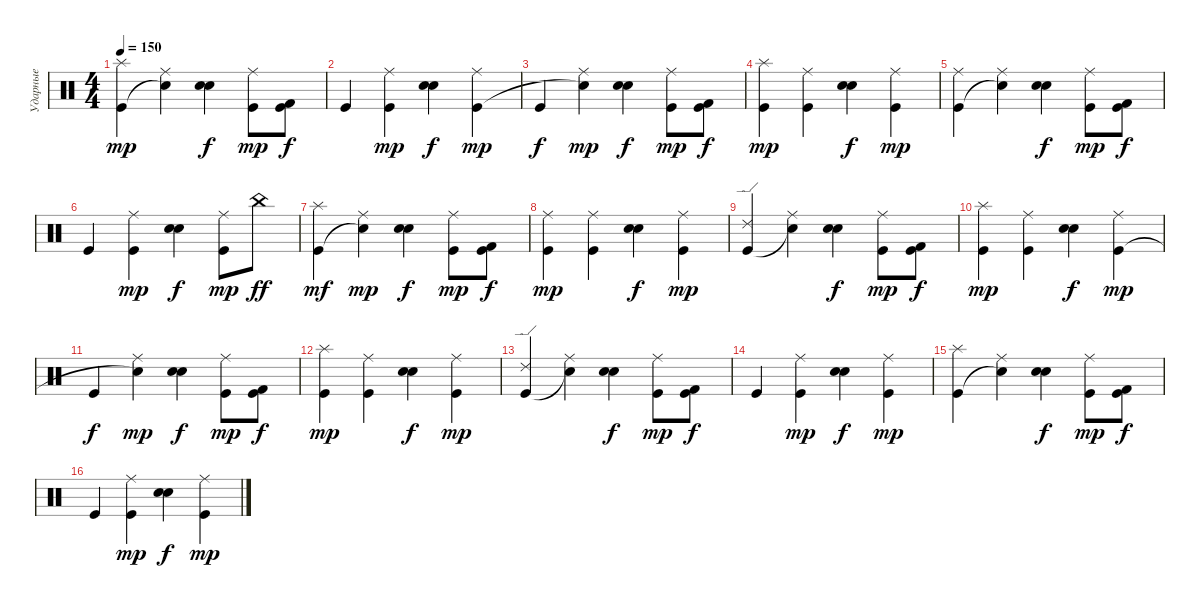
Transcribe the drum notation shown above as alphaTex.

\track ("Ударные" "Ударные") {instrument percussion}
\staff {score}
\articulation defaults
\ts (4 4)
\tempo 150
\clef neutral
\ks c
("Splash (hit)" "Kick (hit)").4{dy mp} ("Ride (middle)" "Snare (hit)"{t}).4 ("Electric Snare (hit)" "Snare (hit) 2").4{dy f} ("Ride (middle)" "Kick (hit)").8{dy mp} ("Kick (hit)" "Kick (hit) 2").8{dy f} |
"Kick (hit)".4 ("Ride (middle)" "Kick (hit)").4{dy mp} ("Electric Snare (hit)" "Snare (hit) 2").4{dy f} ("Ride (middle)" "Kick (hit)").4{dy mp} |
"Kick (hit)".4{dy f} ("Ride (middle)" "Snare (hit)"{t}).4{dy mp} ("Electric Snare (hit)" "Snare (hit) 2").4{dy f} ("Ride (middle)" "Kick (hit)").8{dy mp} ("Kick (hit)" "Kick (hit) 2").8{dy f} |
("Splash (hit)" "Kick (hit)").4{dy mp} ("Ride (middle)" "Kick (hit)").4 ("Electric Snare (hit)" "Snare (hit) 2").4{dy f} ("Ride (middle)" "Kick (hit)").4{dy mp} |
("Ride (middle)" "Kick (hit)").4 ("Ride (middle)" "Snare (hit)"{t}).4 ("Electric Snare (hit)" "Snare (hit) 2").4{dy f} ("Ride (middle)" "Kick (hit)").8{dy mp} ("Kick (hit)" "Kick (hit) 2").8{dy f} |
"Kick (hit)".4 ("Ride (middle)" "Kick (hit)").4{dy mp} ("Electric Snare (hit)" "Snare (hit) 2").4{dy f} ("Ride (middle)" "Kick (hit)").8{dy mp} "China (hit)".8{dy ff} |
("Splash (hit)" "Kick (hit)").4{dy mf} ("Ride (middle)" "Snare (hit)"{t}).4{dy mp} ("Electric Snare (hit)" "Snare (hit) 2").4{dy f} ("Ride (middle)" "Kick (hit)").8{dy mp} ("Kick (hit)" "Kick (hit) 2").8{dy f} |
("Ride (middle)" "Kick (hit)").4{dy mp} ("Ride (middle)" "Kick (hit)").4 ("Electric Snare (hit)" "Snare (hit) 2").4{dy f} ("Ride (middle)" "Kick (hit)").4{dy mp} |
("Ride (edge) 2" "Kick (hit)").4 ("Ride (middle)" "Snare (hit)"{t}).4 ("Electric Snare (hit)" "Snare (hit) 2").4{dy f} ("Ride (middle)" "Kick (hit)").8{dy mp} ("Kick (hit)" "Kick (hit) 2").8{dy f} |
("Splash (hit)" "Kick (hit)").4{dy mp} ("Ride (middle)" "Kick (hit)").4 ("Electric Snare (hit)" "Snare (hit) 2").4{dy f} ("Ride (middle)" "Kick (hit)").4{dy mp} |
"Kick (hit)".4{dy f} ("Ride (middle)" "Snare (hit)"{t}).4{dy mp} ("Electric Snare (hit)" "Snare (hit) 2").4{dy f} ("Ride (middle)" "Kick (hit)").8{dy mp} ("Kick (hit)" "Kick (hit) 2").8{dy f} |
("Splash (hit)" "Kick (hit)").4{dy mp} ("Ride (middle)" "Kick (hit)").4 ("Electric Snare (hit)" "Snare (hit) 2").4{dy f} ("Ride (middle)" "Kick (hit)").4{dy mp} |
("Ride (edge) 2" "Kick (hit)").4 ("Ride (middle)" "Snare (hit)"{t}).4 ("Electric Snare (hit)" "Snare (hit) 2").4{dy f} ("Ride (middle)" "Kick (hit)").8{dy mp} ("Kick (hit)" "Kick (hit) 2").8{dy f} |
"Kick (hit)".4 ("Ride (middle)" "Kick (hit)").4{dy mp} ("Electric Snare (hit)" "Snare (hit) 2").4{dy f} ("Ride (middle)" "Kick (hit)").4{dy mp} |
("Splash (hit)" "Kick (hit)").4 ("Ride (middle)" "Snare (hit)"{t}).4 ("Electric Snare (hit)" "Snare (hit) 2").4{dy f} ("Ride (middle)" "Kick (hit)").8{dy mp} ("Kick (hit)" "Kick (hit) 2").8{dy f} |
"Kick (hit)".4 ("Ride (middle)" "Kick (hit)").4{dy mp} ("Electric Snare (hit)" "Snare (hit) 2").4{dy f} ("Ride (middle)" "Kick (hit)").4{dy mp}
